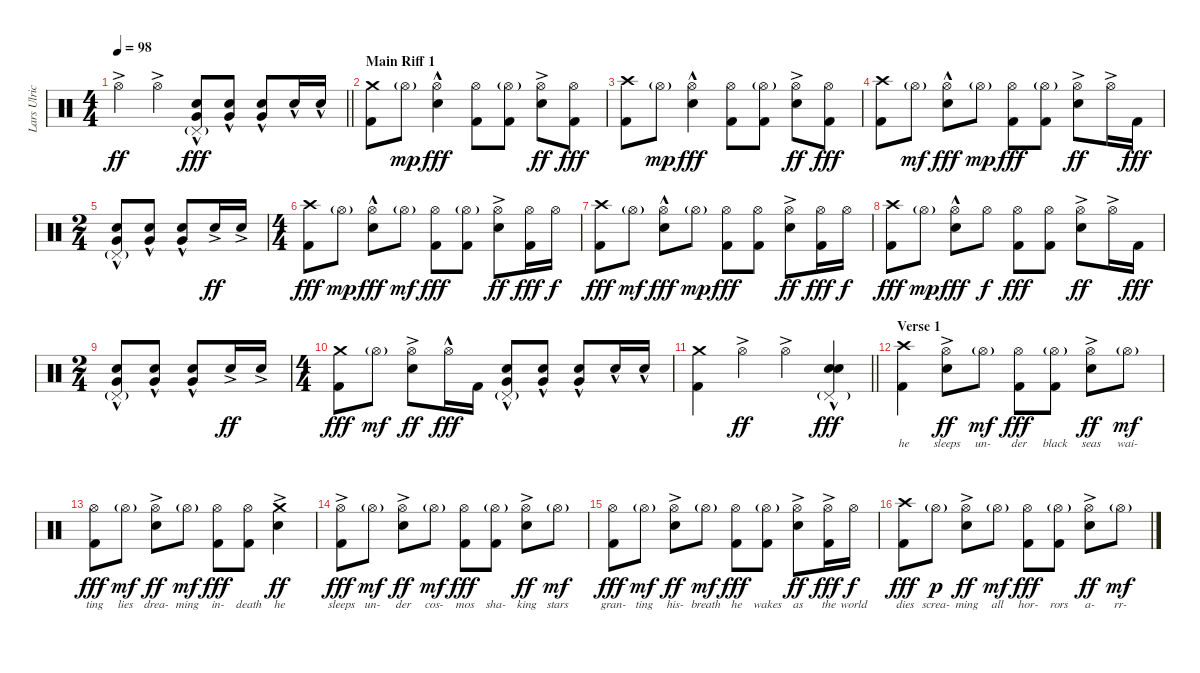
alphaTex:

\track ("Lars Ulrich (Drums)" "Lars Ulric") {instrument percussion}
\staff {score}
\articulation defaults
\ts (4 4)
\tempo 98
\clef neutral
\barLineRight lightlight
\ks c "Hi-Hat (open)"{ac}.4{dy ff} "Hi-Hat (open)"{ac}.4
("Pedal Hi-Hat (hit)"{g} "Electric Snare (hit)"{hac} "Very Low Tom (hit)"{hac}).8{dy fff} ("Electric Snare (hit)"{hac} "Very Low Tom (hit)"{hac}).8 ("Electric Snare (hit)"{hac} "Very Low Tom (hit)"{hac}).8 "Electric Snare (hit)"{hac}.16 "Electric Snare (hit)"{hac}.16 |
\section ("" "Main Riff 1")
("Crash medium (hit)" "Kick (hit) 2").8 "Hi-Hat (open)"{g}.8{dy mp} ("Hi-Hat (open)"{hac} "Electric Snare (hit)"{hac}).4{dy fff} ("Hi-Hat (open)" "Kick (hit) 2").8 ("Hi-Hat (open)"{g} "Kick (hit) 2").8 ("Hi-Hat (open)"{ac} "Electric Snare (hit)"{ac}).8{dy ff} ("Hi-Hat (open)" "Kick (hit) 2").8{dy fff} |
("Crash high (hit)" "Kick (hit) 2").8 "Hi-Hat (open)"{g}.8{dy mp} ("Hi-Hat (open)"{hac} "Electric Snare (hit)"{hac}).4{dy fff} ("Hi-Hat (open)" "Kick (hit) 2").8 ("Hi-Hat (open)"{g} "Kick (hit) 2").8 ("Hi-Hat (open)"{ac} "Electric Snare (hit)"{ac}).8{dy ff} ("Hi-Hat (open)" "Kick (hit) 2").8{dy fff} |
("Crash high (hit)" "Kick (hit) 2").8 "Hi-Hat (open)"{g}.8{dy mf} ("Hi-Hat (open)"{hac} "Electric Snare (hit)"{hac}).8{dy fff} "Hi-Hat (open)"{g}.8{dy mp} ("Hi-Hat (open)" "Kick (hit) 2").8{dy fff} ("Hi-Hat (open)"{g} "Kick (hit) 2").8 ("Hi-Hat (open)"{ac} "Electric Snare (hit)"{ac}).8{dy ff} "Hi-Hat (open)"{ac}.16 "Kick (hit) 2".16{dy fff} |
\ts (2 4)
("Pedal Hi-Hat (hit)"{g} "Electric Snare (hit)"{hac} "Very Low Tom (hit)"{hac}).8 ("Electric Snare (hit)"{hac} "Very Low Tom (hit)"{hac}).8 ("Electric Snare (hit)"{hac} "Very Low Tom (hit)"{hac}).8 "Electric Snare (hit)"{ac}.16{dy ff} "Electric Snare (hit)"{ac}.16 |
\ts (4 4)
("Crash high (hit)" "Kick (hit) 2").8{dy fff} "Hi-Hat (open)"{g}.8{dy mp} ("Hi-Hat (open)"{hac} "Electric Snare (hit)"{hac}).8{dy fff} "Hi-Hat (open)"{g}.8{dy mf} ("Hi-Hat (open)" "Kick (hit) 2").8{dy fff} ("Hi-Hat (open)"{g} "Kick (hit) 2").8 ("Hi-Hat (open)"{ac} "Electric Snare (hit)"{ac}).8{dy ff} ("Hi-Hat (open)" "Kick (hit) 2").16{dy fff} "Hi-Hat (open)".16{dy f} |
("Crash high (hit)" "Kick (hit) 2").8{dy fff} "Hi-Hat (open)"{g}.8{dy mf} ("Hi-Hat (open)"{hac} "Electric Snare (hit)"{hac}).8{dy fff} "Hi-Hat (open)"{g}.8{dy mp} ("Hi-Hat (open)" "Kick (hit) 2").8{dy fff} ("Hi-Hat (open)" "Kick (hit) 2").8 ("Hi-Hat (open)"{ac} "Electric Snare (hit)"{ac}).8{dy ff} ("Hi-Hat (open)" "Kick (hit) 2").16{dy fff} "Hi-Hat (open)".16{dy f} |
("Crash high (hit)" "Kick (hit) 2").8{dy fff} "Hi-Hat (open)"{g}.8{dy mp} ("Hi-Hat (open)"{hac} "Electric Snare (hit)"{hac}).8{dy fff} "Hi-Hat (open)".8{dy f} ("Hi-Hat (open)" "Kick (hit) 2").8{dy fff} ("Hi-Hat (open)" "Kick (hit) 2").8 ("Hi-Hat (open)"{ac} "Electric Snare (hit)"{ac}).8{dy ff} "Hi-Hat (open)"{ac}.16 "Kick (hit) 2".16{dy fff} |
\ts (2 4)
("Pedal Hi-Hat (hit)"{g} "Electric Snare (hit)"{hac} "Very Low Tom (hit)"{hac}).8 ("Electric Snare (hit)"{hac} "Very Low Tom (hit)"{hac}).8 ("Electric Snare (hit)"{hac} "Very Low Tom (hit)"{hac}).8 "Electric Snare (hit)"{ac}.16{dy ff} "Electric Snare (hit)"{ac}.16 |
\ts (4 4)
("Crash medium (hit)" "Kick (hit) 2").8{dy fff} "Hi-Hat (open)"{g}.8{dy mf} ("Hi-Hat (open)"{ac} "Electric Snare (hit)"{ac}).8{dy ff} "Hi-Hat (open)"{hac}.16{dy fff} "Kick (hit) 2".16 ("Pedal Hi-Hat (hit)"{g} "Electric Snare (hit)"{hac} "Very Low Tom (hit)"{hac}).8 ("Electric Snare (hit)"{hac} "Very Low Tom (hit)"{hac}).8 ("Electric Snare (hit)"{hac} "Very Low Tom (hit)"{hac}).8 "Electric Snare (hit)"{hac}.16 "Electric Snare (hit)"{hac}.16 |
\barLineRight lightlight
("Crash medium (hit)" "Kick (hit) 2").4 "Hi-Hat (open)"{ac}.4{dy ff} "Hi-Hat (open)"{ac}.4 ("Pedal Hi-Hat (hit)"{g} "Electric Snare (hit)"{hac} "Electric Snare (hit)"{hac}).4{bd 60 dy fff} |
\section ("" "Verse 1")
("Crash high (hit)" "Kick (hit) 2").4{lyrics (0 "he") lyrics (1 "") lyrics (2 "") lyrics (3 "") lyrics (4 "")} ("Hi-Hat (open)"{ac} "Electric Snare (hit)"{ac}).8{lyrics (0 "sleeps") lyrics (1 "") lyrics (2 "") lyrics (3 "") lyrics (4 "") dy ff} "Hi-Hat (open)"{g}.8{lyrics (0 "un-") lyrics (1 "") lyrics (2 "") lyrics (3 "") lyrics (4 "") dy mf} ("Hi-Hat (open)" "Kick (hit) 2").8{lyrics (0 "der") lyrics (1 "") lyrics (2 "") lyrics (3 "") lyrics (4 "") dy fff} ("Hi-Hat (open)"{g} "Kick (hit) 2").8{lyrics (0 "black") lyrics (1 "") lyrics (2 "") lyrics (3 "") lyrics (4 "")} ("Hi-Hat (open)"{ac} "Electric Snare (hit)"{ac}).8{lyrics (0 "seas") lyrics (1 "") lyrics (2 "") lyrics (3 "") lyrics (4 "") dy ff} "Hi-Hat (open)"{g}.8{lyrics (0 "wai-") lyrics (1 "") lyrics (2 "") lyrics (3 "") lyrics (4 "") dy mf} |
("Hi-Hat (open)" "Kick (hit) 2").8{lyrics (0 "ting") lyrics (1 "") lyrics (2 "") lyrics (3 "") lyrics (4 "") dy fff} "Hi-Hat (open)"{g}.8{lyrics (0 "lies") lyrics (1 "") lyrics (2 "") lyrics (3 "") lyrics (4 "") dy mf} ("Hi-Hat (open)"{ac} "Electric Snare (hit)"{ac}).8{lyrics (0 "drea-") lyrics (1 "") lyrics (2 "") lyrics (3 "") lyrics (4 "") dy ff} "Hi-Hat (open)"{g}.8{lyrics (0 "ming") lyrics (1 "") lyrics (2 "") lyrics (3 "") lyrics (4 "") dy mf} ("Hi-Hat (open)" "Kick (hit) 2").8{lyrics (0 "in-") lyrics (1 "") lyrics (2 "") lyrics (3 "") lyrics (4 "") dy fff} ("Hi-Hat (open)" "Kick (hit) 2").8{lyrics (0 "death") lyrics (1 "") lyrics (2 "") lyrics (3 "") lyrics (4 "")} ("Crash medium (hit)" "Electric Snare (hit)"{ac}).4{lyrics (0 "he") lyrics (1 "") lyrics (2 "") lyrics (3 "") lyrics (4 "") dy ff} |
("Hi-Hat (open)"{ac} "Kick (hit) 2").8{lyrics (0 "sleeps") lyrics (1 "") lyrics (2 "") lyrics (3 "") lyrics (4 "") dy fff} "Hi-Hat (open)"{g}.8{lyrics (0 "un-") lyrics (1 "") lyrics (2 "") lyrics (3 "") lyrics (4 "") dy mf} ("Hi-Hat (open)"{ac} "Electric Snare (hit)"{ac}).8{lyrics (0 "der") lyrics (1 "") lyrics (2 "") lyrics (3 "") lyrics (4 "") dy ff} "Hi-Hat (open)"{g}.8{lyrics (0 "cos-") lyrics (1 "") lyrics (2 "") lyrics (3 "") lyrics (4 "") dy mf} ("Hi-Hat (open)" "Kick (hit) 2").8{lyrics (0 "mos") lyrics (1 "") lyrics (2 "") lyrics (3 "") lyrics (4 "") dy fff} ("Hi-Hat (open)"{g} "Kick (hit) 2").8{lyrics (0 "sha-") lyrics (1 "") lyrics (2 "") lyrics (3 "") lyrics (4 "")} ("Hi-Hat (open)"{ac} "Electric Snare (hit)"{ac}).8{lyrics (0 "king") lyrics (1 "") lyrics (2 "") lyrics (3 "") lyrics (4 "") dy ff} "Hi-Hat (open)"{g}.8{lyrics (0 "stars") lyrics (1 "") lyrics (2 "") lyrics (3 "") lyrics (4 "") dy mf} |
("Hi-Hat (open)" "Kick (hit) 2").8{lyrics (0 "gran-") lyrics (1 "") lyrics (2 "") lyrics (3 "") lyrics (4 "") dy fff} "Hi-Hat (open)"{g}.8{lyrics (0 "ting") lyrics (1 "") lyrics (2 "") lyrics (3 "") lyrics (4 "") dy mf} ("Hi-Hat (open)"{ac} "Electric Snare (hit)"{ac}).8{lyrics (0 "his-") lyrics (1 "") lyrics (2 "") lyrics (3 "") lyrics (4 "") dy ff} "Hi-Hat (open)"{g}.8{lyrics (0 "breath") lyrics (1 "") lyrics (2 "") lyrics (3 "") lyrics (4 "") dy mf} ("Hi-Hat (open)" "Kick (hit) 2").8{lyrics (0 "he") lyrics (1 "") lyrics (2 "") lyrics (3 "") lyrics (4 "") dy fff} ("Hi-Hat (open)"{g} "Kick (hit) 2").8{lyrics (0 "wakes") lyrics (1 "") lyrics (2 "") lyrics (3 "") lyrics (4 "")} ("Hi-Hat (open)"{ac} "Electric Snare (hit)"{ac}).8{lyrics (0 "as") lyrics (1 "") lyrics (2 "") lyrics (3 "") lyrics (4 "") dy ff} ("Hi-Hat (open)"{ac} "Kick (hit) 2").16{lyrics (0 "the") lyrics (1 "") lyrics (2 "") lyrics (3 "") lyrics (4 "") dy fff} "Hi-Hat (open)".16{lyrics (0 "world") lyrics (1 "") lyrics (2 "") lyrics (3 "") lyrics (4 "") dy f} |
("Crash high (hit)" "Kick (hit) 2").8{lyrics (0 "dies") lyrics (1 "") lyrics (2 "") lyrics (3 "") lyrics (4 "") dy fff} "Hi-Hat (open)"{g}.8{lyrics (0 "screa-") lyrics (1 "") lyrics (2 "") lyrics (3 "") lyrics (4 "") dy p} ("Hi-Hat (open)"{ac} "Electric Snare (hit)"{ac}).8{lyrics (0 "ming") lyrics (1 "") lyrics (2 "") lyrics (3 "") lyrics (4 "") dy ff} "Hi-Hat (open)"{g}.8{lyrics (0 "all") lyrics (1 "") lyrics (2 "") lyrics (3 "") lyrics (4 "") dy mf} ("Hi-Hat (open)" "Kick (hit) 2").8{lyrics (0 "hor-") lyrics (1 "") lyrics (2 "") lyrics (3 "") lyrics (4 "") dy fff} ("Hi-Hat (open)"{g} "Kick (hit) 2").8{lyrics (0 "rors") lyrics (1 "") lyrics (2 "") lyrics (3 "") lyrics (4 "")} ("Hi-Hat (open)"{ac} "Electric Snare (hit)"{ac}).8{lyrics (0 "a-") lyrics (1 "") lyrics (2 "") lyrics (3 "") lyrics (4 "") dy ff} "Hi-Hat (open)"{g}.8{lyrics (0 "rr-") lyrics (1 "") lyrics (2 "") lyrics (3 "") lyrics (4 "") dy mf}
